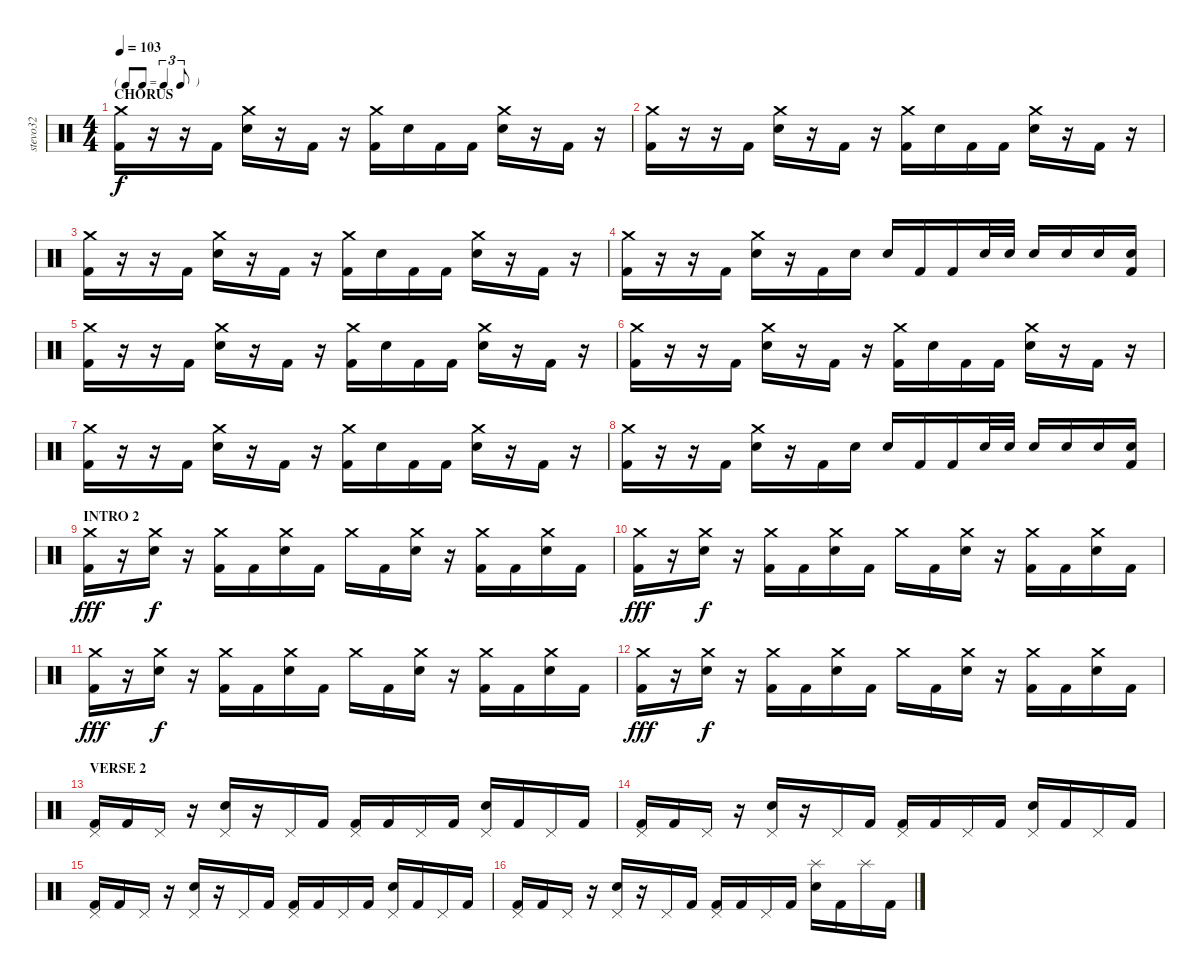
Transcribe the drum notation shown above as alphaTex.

\track ("stevo32" "stevo32") {instrument percussion}
\staff {score}
\articulation defaults
\ts (4 4)
\tf triplet8th
\section ("" "CHORUS")
\tempo 103
\clef neutral
\ks c
("Crash medium (hit)" "Kick (hit) 2").16{dy f} r.16 r.16 "Kick (hit) 2".16 ("Crash medium (hit)" "Electric Snare (hit)").16 r.16 "Kick (hit) 2".16 r.16 ("Crash medium (hit)" "Kick (hit) 2").16 "Electric Snare (hit)".16 "Kick (hit) 2".16 "Kick (hit) 2".16 ("Crash medium (hit)" "Electric Snare (hit)").16 r.16 "Kick (hit) 2".16 r.16 |
("Crash medium (hit)" "Kick (hit) 2").16 r.16 r.16 "Kick (hit) 2".16 ("Crash medium (hit)" "Electric Snare (hit)").16 r.16 "Kick (hit) 2".16 r.16 ("Crash medium (hit)" "Kick (hit) 2").16 "Electric Snare (hit)".16 "Kick (hit) 2".16 "Kick (hit) 2".16 ("Crash medium (hit)" "Electric Snare (hit)").16 r.16 "Kick (hit) 2".16 r.16 |
("Crash medium (hit)" "Kick (hit) 2").16 r.16 r.16 "Kick (hit) 2".16 ("Crash medium (hit)" "Electric Snare (hit)").16 r.16 "Kick (hit) 2".16 r.16 ("Crash medium (hit)" "Kick (hit) 2").16 "Electric Snare (hit)".16 "Kick (hit) 2".16 "Kick (hit) 2".16 ("Crash medium (hit)" "Electric Snare (hit)").16 r.16 "Kick (hit) 2".16 r.16 |
("Crash medium (hit)" "Kick (hit) 2").16 r.16 r.16 "Kick (hit) 2".16 ("Crash medium (hit)" "Electric Snare (hit)").16 r.16 "Kick (hit) 2".16 "Electric Snare (hit)".16 "Electric Snare (hit)".16 "Kick (hit) 2".16 "Kick (hit) 2".16 "Electric Snare (hit)".32 "Electric Snare (hit)".32 "Electric Snare (hit)".16 "Electric Snare (hit)".16 "Electric Snare (hit)".16 ("Electric Snare (hit)" "Kick (hit) 2").16 |
("Crash medium (hit)" "Kick (hit) 2").16 r.16 r.16 "Kick (hit) 2".16 ("Crash medium (hit)" "Electric Snare (hit)").16 r.16 "Kick (hit) 2".16 r.16 ("Crash medium (hit)" "Kick (hit) 2").16 "Electric Snare (hit)".16 "Kick (hit) 2".16 "Kick (hit) 2".16 ("Crash medium (hit)" "Electric Snare (hit)").16 r.16 "Kick (hit) 2".16 r.16 |
("Crash medium (hit)" "Kick (hit) 2").16 r.16 r.16 "Kick (hit) 2".16 ("Crash medium (hit)" "Electric Snare (hit)").16 r.16 "Kick (hit) 2".16 r.16 ("Crash medium (hit)" "Kick (hit) 2").16 "Electric Snare (hit)".16 "Kick (hit) 2".16 "Kick (hit) 2".16 ("Crash medium (hit)" "Electric Snare (hit)").16 r.16 "Kick (hit) 2".16 r.16 |
("Crash medium (hit)" "Kick (hit) 2").16 r.16 r.16 "Kick (hit) 2".16 ("Crash medium (hit)" "Electric Snare (hit)").16 r.16 "Kick (hit) 2".16 r.16 ("Crash medium (hit)" "Kick (hit) 2").16 "Electric Snare (hit)".16 "Kick (hit) 2".16 "Kick (hit) 2".16 ("Crash medium (hit)" "Electric Snare (hit)").16 r.16 "Kick (hit) 2".16 r.16 |
("Crash medium (hit)" "Kick (hit) 2").16 r.16 r.16 "Kick (hit) 2".16 ("Crash medium (hit)" "Electric Snare (hit)").16 r.16 "Kick (hit) 2".16 "Electric Snare (hit)".16 "Electric Snare (hit)".16 "Kick (hit) 2".16 "Kick (hit) 2".16 "Electric Snare (hit)".32 "Electric Snare (hit)".32 "Electric Snare (hit)".16 "Electric Snare (hit)".16 "Electric Snare (hit)".16 ("Electric Snare (hit)" "Kick (hit) 2").16 |
\section ("" "INTRO 2")
("Crash medium (hit)" "Kick (hit) 2").16{dy fff} r.16 ("Crash medium (hit)" "Electric Snare (hit)").16{dy f} r.16 ("Crash medium (hit)" "Kick (hit) 2").16 "Kick (hit) 2".16 ("Crash medium (hit)" "Electric Snare (hit)").16 "Kick (hit) 2".16 "Crash medium (hit)".16 "Kick (hit) 2".16 ("Crash medium (hit)" "Electric Snare (hit)").16 r.16 ("Crash medium (hit)" "Kick (hit) 2").16 "Kick (hit) 2".16 ("Crash medium (hit)" "Electric Snare (hit)").16 "Kick (hit) 2".16 |
("Crash medium (hit)" "Kick (hit) 2").16{dy fff} r.16 ("Crash medium (hit)" "Electric Snare (hit)").16{dy f} r.16 ("Crash medium (hit)" "Kick (hit) 2").16 "Kick (hit) 2".16 ("Crash medium (hit)" "Electric Snare (hit)").16 "Kick (hit) 2".16 "Crash medium (hit)".16 "Kick (hit) 2".16 ("Crash medium (hit)" "Electric Snare (hit)").16 r.16 ("Crash medium (hit)" "Kick (hit) 2").16 "Kick (hit) 2".16 ("Crash medium (hit)" "Electric Snare (hit)").16 "Kick (hit) 2".16 |
("Crash medium (hit)" "Kick (hit) 2").16{dy fff} r.16 ("Crash medium (hit)" "Electric Snare (hit)").16{dy f} r.16 ("Crash medium (hit)" "Kick (hit) 2").16 "Kick (hit) 2".16 ("Crash medium (hit)" "Electric Snare (hit)").16 "Kick (hit) 2".16 "Crash medium (hit)".16 "Kick (hit) 2".16 ("Crash medium (hit)" "Electric Snare (hit)").16 r.16 ("Crash medium (hit)" "Kick (hit) 2").16 "Kick (hit) 2".16 ("Crash medium (hit)" "Electric Snare (hit)").16 "Kick (hit) 2".16 |
("Crash medium (hit)" "Kick (hit) 2").16{dy fff} r.16 ("Crash medium (hit)" "Electric Snare (hit)").16{dy f} r.16 ("Crash medium (hit)" "Kick (hit) 2").16 "Kick (hit) 2".16 ("Crash medium (hit)" "Electric Snare (hit)").16 "Kick (hit) 2".16 "Crash medium (hit)".16 "Kick (hit) 2".16 ("Crash medium (hit)" "Electric Snare (hit)").16 r.16 ("Crash medium (hit)" "Kick (hit) 2").16 "Kick (hit) 2".16 ("Crash medium (hit)" "Electric Snare (hit)").16 "Kick (hit) 2".16 |
\section ("" "VERSE 2")
("Pedal Hi-Hat (hit)" "Kick (hit) 2").16 "Kick (hit) 2".16 "Pedal Hi-Hat (hit)".16 r.16 ("Pedal Hi-Hat (hit)" "Electric Snare (hit)").16 r.16 "Pedal Hi-Hat (hit)".16 "Kick (hit) 2".16 ("Pedal Hi-Hat (hit)" "Kick (hit) 2").16 "Kick (hit) 2".16 "Pedal Hi-Hat (hit)".16 "Kick (hit) 2".16 ("Pedal Hi-Hat (hit)" "Electric Snare (hit)").16 "Kick (hit) 2".16 "Pedal Hi-Hat (hit)".16 "Kick (hit) 2".16 |
("Pedal Hi-Hat (hit)" "Kick (hit) 2").16 "Kick (hit) 2".16 "Pedal Hi-Hat (hit)".16 r.16 ("Pedal Hi-Hat (hit)" "Electric Snare (hit)").16 r.16 "Pedal Hi-Hat (hit)".16 "Kick (hit) 2".16 ("Pedal Hi-Hat (hit)" "Kick (hit) 2").16 "Kick (hit) 2".16 "Pedal Hi-Hat (hit)".16 "Kick (hit) 2".16 ("Pedal Hi-Hat (hit)" "Electric Snare (hit)").16 "Kick (hit) 2".16 "Pedal Hi-Hat (hit)".16 "Kick (hit) 2".16 |
("Pedal Hi-Hat (hit)" "Kick (hit) 2").16 "Kick (hit) 2".16 "Pedal Hi-Hat (hit)".16 r.16 ("Pedal Hi-Hat (hit)" "Electric Snare (hit)").16 r.16 "Pedal Hi-Hat (hit)".16 "Kick (hit) 2".16 ("Pedal Hi-Hat (hit)" "Kick (hit) 2").16 "Kick (hit) 2".16 "Pedal Hi-Hat (hit)".16 "Kick (hit) 2".16 ("Pedal Hi-Hat (hit)" "Electric Snare (hit)").16 "Kick (hit) 2".16 "Pedal Hi-Hat (hit)".16 "Kick (hit) 2".16 |
("Pedal Hi-Hat (hit)" "Kick (hit) 2").16 "Kick (hit) 2".16 "Pedal Hi-Hat (hit)".16 r.16 ("Pedal Hi-Hat (hit)" "Electric Snare (hit)").16 r.16 "Pedal Hi-Hat (hit)".16 "Kick (hit) 2".16 ("Pedal Hi-Hat (hit)" "Kick (hit) 2").16 "Kick (hit) 2".16 "Pedal Hi-Hat (hit)".16 "Kick (hit) 2".16 ("Splash (hit)" "Electric Snare (hit)").16 "Kick (hit) 2".16 "Splash (hit)".16 "Kick (hit) 2".16
